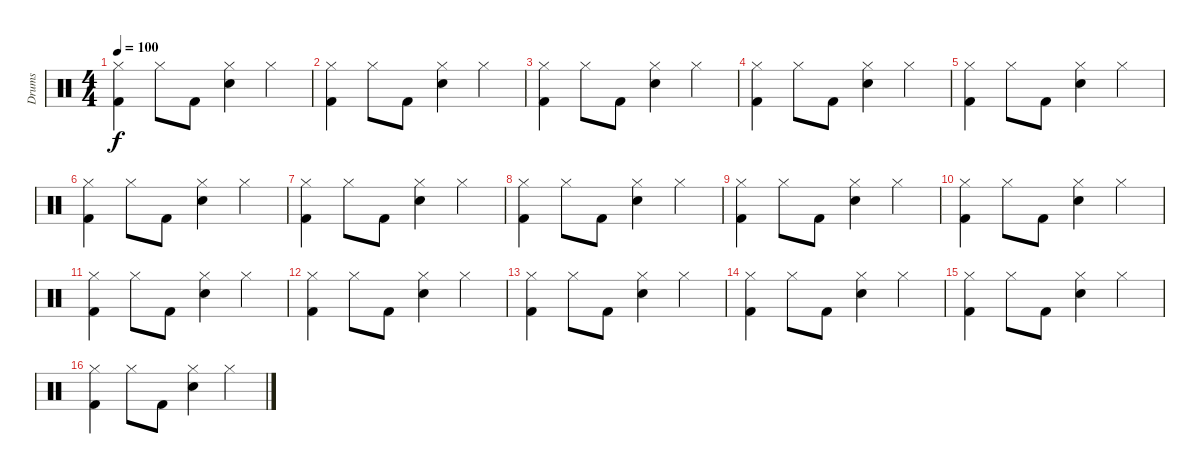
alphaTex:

\track ("Drums" "Drums") {instrument percussion}
\staff {score}
\articulation defaults
\ts (4 4)
\tempo 100
\clef neutral
\ks c
("Hi-Hat (closed)" "Kick (hit) 2").4{dy f} "Hi-Hat (closed)".8 "Kick (hit) 2".8 ("Hi-Hat (closed)" "Electric Snare (hit)").4 "Hi-Hat (closed)".4 |
("Hi-Hat (closed)" "Kick (hit) 2").4 "Hi-Hat (closed)".8 "Kick (hit) 2".8 ("Hi-Hat (closed)" "Electric Snare (hit)").4 "Hi-Hat (closed)".4 |
("Hi-Hat (closed)" "Kick (hit) 2").4 "Hi-Hat (closed)".8 "Kick (hit) 2".8 ("Hi-Hat (closed)" "Electric Snare (hit)").4 "Hi-Hat (closed)".4 |
("Hi-Hat (closed)" "Kick (hit) 2").4 "Hi-Hat (closed)".8 "Kick (hit) 2".8 ("Hi-Hat (closed)" "Electric Snare (hit)").4 "Hi-Hat (closed)".4 |
("Hi-Hat (closed)" "Kick (hit) 2").4 "Hi-Hat (closed)".8 "Kick (hit) 2".8 ("Hi-Hat (closed)" "Electric Snare (hit)").4 "Hi-Hat (closed)".4 |
("Hi-Hat (closed)" "Kick (hit) 2").4 "Hi-Hat (closed)".8 "Kick (hit) 2".8 ("Hi-Hat (closed)" "Electric Snare (hit)").4 "Hi-Hat (closed)".4 |
("Hi-Hat (closed)" "Kick (hit) 2").4 "Hi-Hat (closed)".8 "Kick (hit) 2".8 ("Hi-Hat (closed)" "Electric Snare (hit)").4 "Hi-Hat (closed)".4 |
("Hi-Hat (closed)" "Kick (hit) 2").4 "Hi-Hat (closed)".8 "Kick (hit) 2".8 ("Hi-Hat (closed)" "Electric Snare (hit)").4 "Hi-Hat (closed)".4 |
("Hi-Hat (closed)" "Kick (hit) 2").4 "Hi-Hat (closed)".8 "Kick (hit) 2".8 ("Hi-Hat (closed)" "Electric Snare (hit)").4 "Hi-Hat (closed)".4 |
("Hi-Hat (closed)" "Kick (hit) 2").4 "Hi-Hat (closed)".8 "Kick (hit) 2".8 ("Hi-Hat (closed)" "Electric Snare (hit)").4 "Hi-Hat (closed)".4 |
("Hi-Hat (closed)" "Kick (hit) 2").4 "Hi-Hat (closed)".8 "Kick (hit) 2".8 ("Hi-Hat (closed)" "Electric Snare (hit)").4 "Hi-Hat (closed)".4 |
("Hi-Hat (closed)" "Kick (hit) 2").4 "Hi-Hat (closed)".8 "Kick (hit) 2".8 ("Hi-Hat (closed)" "Electric Snare (hit)").4 "Hi-Hat (closed)".4 |
("Hi-Hat (closed)" "Kick (hit) 2").4 "Hi-Hat (closed)".8 "Kick (hit) 2".8 ("Hi-Hat (closed)" "Electric Snare (hit)").4 "Hi-Hat (closed)".4 |
("Hi-Hat (closed)" "Kick (hit) 2").4 "Hi-Hat (closed)".8 "Kick (hit) 2".8 ("Hi-Hat (closed)" "Electric Snare (hit)").4 "Hi-Hat (closed)".4 |
("Hi-Hat (closed)" "Kick (hit) 2").4 "Hi-Hat (closed)".8 "Kick (hit) 2".8 ("Hi-Hat (closed)" "Electric Snare (hit)").4 "Hi-Hat (closed)".4 |
("Hi-Hat (closed)" "Kick (hit) 2").4 "Hi-Hat (closed)".8 "Kick (hit) 2".8 ("Hi-Hat (closed)" "Electric Snare (hit)").4 "Hi-Hat (closed)".4
